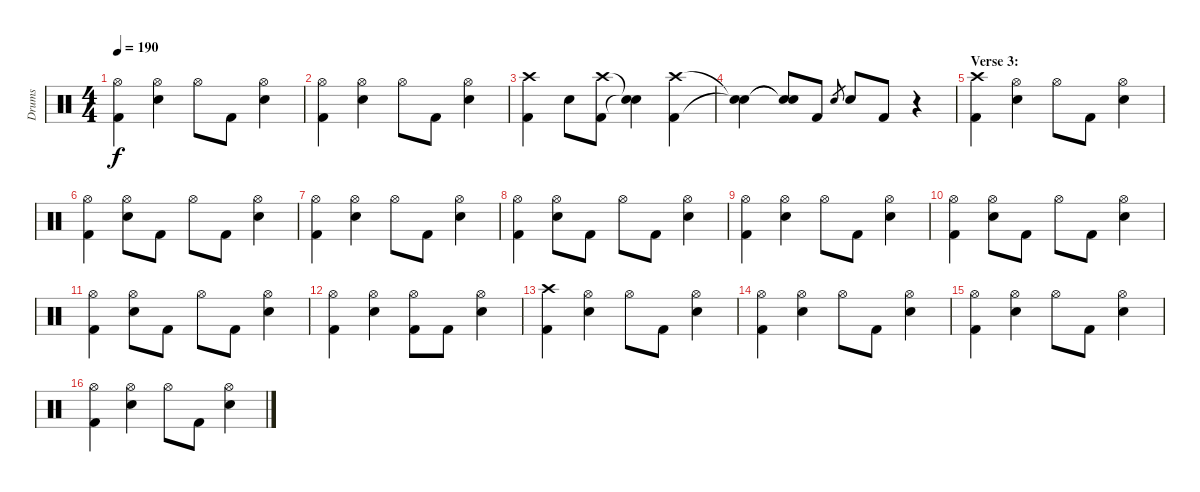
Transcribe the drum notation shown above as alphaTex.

\track ("Drums" "Drums") {instrument percussion}
\staff {score}
\articulation defaults
\ts (4 4)
\tempo 190
\clef neutral
\ks c
("Hi-Hat (open)" "Kick (hit) 2").4{dy f} ("Hi-Hat (open)" "Electric Snare (hit)").4 "Hi-Hat (open)".8 "Kick (hit) 2".8 ("Hi-Hat (open)" "Electric Snare (hit)").4 |
("Hi-Hat (open)" "Kick (hit) 2").4 ("Hi-Hat (open)" "Electric Snare (hit)").4 "Hi-Hat (open)".8 "Kick (hit) 2".8 ("Hi-Hat (open)" "Electric Snare (hit)").4 |
("Crash high (hit)" "Kick (hit) 2").4 "Electric Snare (hit)".8 ("Crash high (hit)" "Kick (hit) 2").8 ("Snare (hit)"{t} "Snare (hit)"{t}).4 ("Crash high (hit)" "Kick (hit) 2").4 |
("Snare (hit)"{t} "Snare (hit)"{t}).4 ("Snare (hit)"{t} "Snare (hit)"{t}).8 "Kick (hit) 2".8 "Electric Snare (hit)".8{gr} "Electric Snare (hit)".8 "Kick (hit) 2".8 r.4 |
\section ("" "Verse 3:")
("Crash high (hit)" "Kick (hit) 2").4 ("Hi-Hat (open)" "Electric Snare (hit)").4 "Hi-Hat (open)".8 "Kick (hit) 2".8 ("Hi-Hat (open)" "Electric Snare (hit)").4 |
("Hi-Hat (open)" "Kick (hit) 2").4 ("Hi-Hat (open)" "Electric Snare (hit)").8 "Kick (hit) 2".8 "Hi-Hat (open)".8 "Kick (hit) 2".8 ("Hi-Hat (open)" "Electric Snare (hit)").4 |
("Hi-Hat (open)" "Kick (hit) 2").4 ("Hi-Hat (open)" "Electric Snare (hit)").4 "Hi-Hat (open)".8 "Kick (hit) 2".8 ("Hi-Hat (open)" "Electric Snare (hit)").4 |
("Hi-Hat (open)" "Kick (hit) 2").4 ("Hi-Hat (open)" "Electric Snare (hit)").8 "Kick (hit) 2".8 "Hi-Hat (open)".8 "Kick (hit) 2".8 ("Hi-Hat (open)" "Electric Snare (hit)").4 |
("Hi-Hat (open)" "Kick (hit) 2").4 ("Hi-Hat (open)" "Electric Snare (hit)").4 "Hi-Hat (open)".8 "Kick (hit) 2".8 ("Hi-Hat (open)" "Electric Snare (hit)").4 |
("Hi-Hat (open)" "Kick (hit) 2").4 ("Hi-Hat (open)" "Electric Snare (hit)").8 "Kick (hit) 2".8 "Hi-Hat (open)".8 "Kick (hit) 2".8 ("Hi-Hat (open)" "Electric Snare (hit)").4 |
("Hi-Hat (open)" "Kick (hit) 2").4 ("Hi-Hat (open)" "Electric Snare (hit)").8 "Kick (hit) 2".8 "Hi-Hat (open)".8 "Kick (hit) 2".8 ("Hi-Hat (open)" "Electric Snare (hit)").4 |
("Hi-Hat (open)" "Kick (hit) 2").4 ("Hi-Hat (open)" "Electric Snare (hit)").4 ("Hi-Hat (open)" "Kick (hit) 2").8 "Kick (hit) 2".8 ("Hi-Hat (open)" "Electric Snare (hit)").4 |
("Crash high (hit)" "Kick (hit) 2").4 ("Hi-Hat (open)" "Electric Snare (hit)").4 "Hi-Hat (open)".8 "Kick (hit) 2".8 ("Hi-Hat (open)" "Electric Snare (hit)").4 |
("Hi-Hat (open)" "Kick (hit) 2").4 ("Hi-Hat (open)" "Electric Snare (hit)").4 "Hi-Hat (open)".8 "Kick (hit) 2".8 ("Hi-Hat (open)" "Electric Snare (hit)").4 |
("Hi-Hat (open)" "Kick (hit) 2").4 ("Hi-Hat (open)" "Electric Snare (hit)").4 "Hi-Hat (open)".8 "Kick (hit) 2".8 ("Hi-Hat (open)" "Electric Snare (hit)").4 |
("Hi-Hat (open)" "Kick (hit) 2").4 ("Hi-Hat (open)" "Electric Snare (hit)").4 "Hi-Hat (open)".8 "Kick (hit) 2".8 ("Hi-Hat (open)" "Electric Snare (hit)").4
